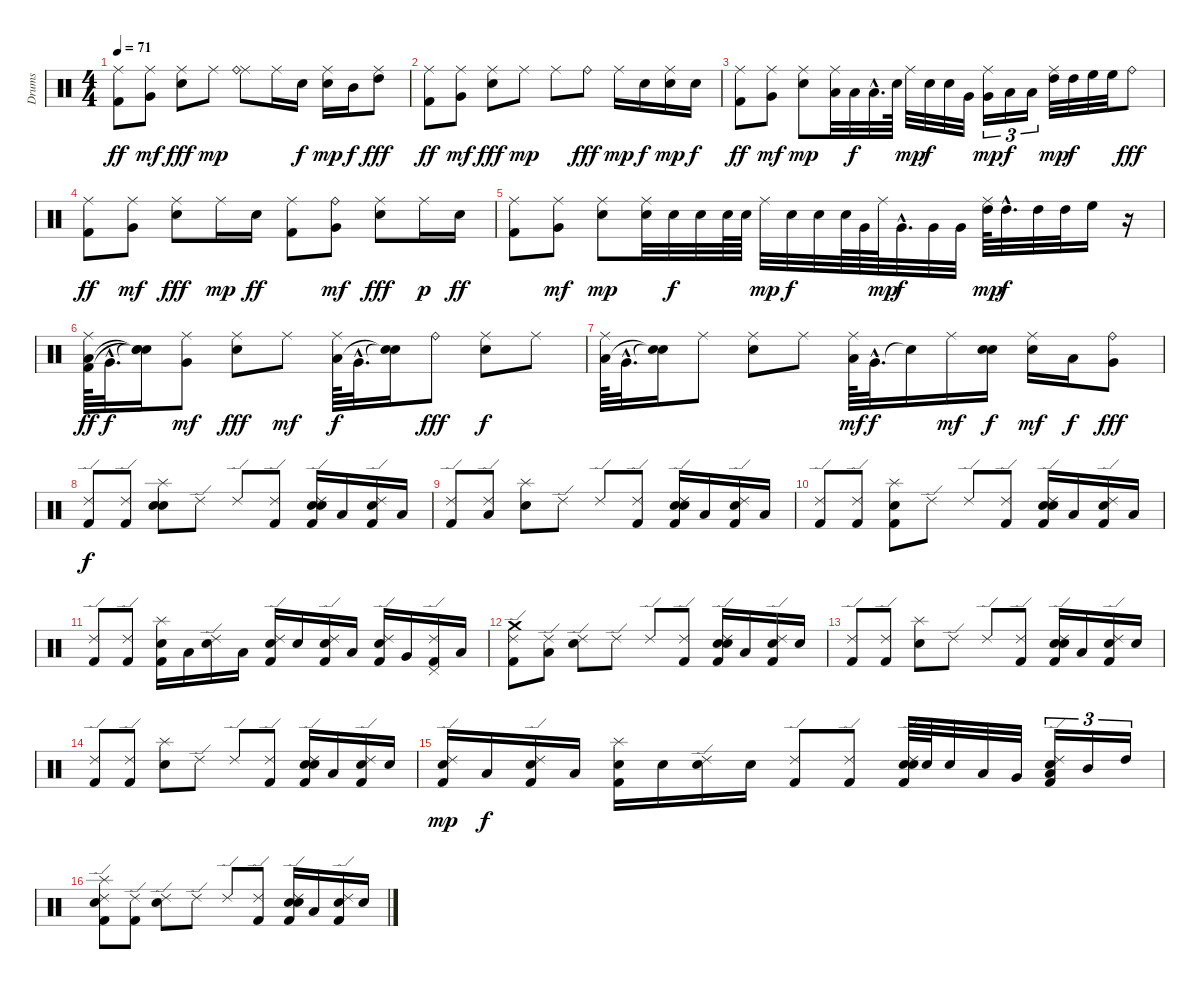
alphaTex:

\track ("Drums" "Drums") {instrument percussion}
\staff {score}
\articulation defaults
\ts (4 4)
\tempo 71
\clef neutral
\ks c
("Ride (middle)" "Kick (hit) 2").8{dy ff} ("Ride (middle)" "Very Low Tom (hit)").8{dy mf} ("Ride (middle)" "Electric Snare (hit)").8{dy fff} "Ride (middle)".8{dy mp} ("Ride (middle)" "Ride (bell)").8 "Ride (middle)".16 "Electric Snare (hit)".16{dy f} ("Ride (middle)" "Electric Snare (hit)").16{dy mp} "Mid Tom (hit)".16{dy f} ("Ride (middle)" "High Tom (hit)").8{dy fff} |
("Ride (middle)" "Kick (hit) 2").8{dy ff} ("Ride (middle)" "Very Low Tom (hit)").8{dy mf} ("Ride (middle)" "Electric Snare (hit)").8{dy fff} "Ride (middle)".8{dy mp} "Ride (middle)".8 "Ride (bell)".8{dy fff} "Ride (middle)".16{dy mp} "Snare (hit) 2".16{dy f} ("Ride (middle)" "Snare (hit) 2").16{dy mp} "Snare (hit) 2".16{dy f} |
("Ride (middle)" "Kick (hit) 2").8{dy ff} ("Ride (middle)" "Very Low Tom (hit)").8{dy mf} ("Ride (middle)" "Electric Snare (hit)").8{dy mp} ("Ride (middle)" "Low Floor Tom (hit)").32{volume 10} "Low Floor Tom (hit)".32{dy f} "Low Floor Tom (hit)"{hac}.32{d volume 14} "Electric Snare (hit)".64 "Ride (middle)".32{dy mp} "Electric Snare (hit)".32{dy f} "Electric Snare (hit)".32 "Very Low Tom (hit)".32{volume 10} ("Ride (middle)" "Very Low Tom (hit)").16{tu (3 2) dy mp volume 12} "Low Tom (hit)".16{tu (3 2) dy f volume 14} "Low Tom (hit)".16{tu (3 2) volume 15} ("Ride (middle)" "High Tom (hit)").32{dy mp volume 16} "High Tom (hit)".32{dy f} "High Floor Tom (hit)".32 "High Floor Tom (hit)".32 "Ride (bell)".8{dy fff} |
("Ride (middle)" "Kick (hit) 2").8{dy ff} ("Ride (middle)" "Very Low Tom (hit)").8{dy mf} ("Ride (middle)" "Electric Snare (hit)").8{dy fff} "Ride (middle)".16{dy mp} "Snare (hit) 2".16{dy ff} ("Ride (middle)" "Kick (hit) 2").8 ("Ride (bell)" "Very Low Tom (hit)").8{dy mf} ("Ride (middle)" "Electric Snare (hit)").8{dy fff} "Ride (middle)".16{dy p} "Snare (hit) 2".16{dy ff} |
("Ride (middle)" "Kick (hit) 2").8 ("Ride (middle)" "Very Low Tom (hit)").8{dy mf} ("Ride (middle)" "Electric Snare (hit)").8{dy mp} ("Ride (middle)" "Snare (hit) 2").32 "Snare (hit) 2".32{dy f} "Snare (hit) 2".32 "Snare (hit) 2".64 "Electric Snare (hit)".64 "Ride (middle)".32{dy mp} "Electric Snare (hit)".32{dy f} "Electric Snare (hit)".32 "Electric Snare (hit)".64 "Very Low Tom (hit)".64 "Ride (middle)".64{dy mp} "Very Low Tom (hit)"{hac}.32{d dy f} "Very Low Tom (hit)".32 "Very Low Tom (hit)".32 ("Ride (middle)" "High Tom (hit)").64{dy mp} "High Tom (hit)"{hac}.32{d dy f} "High Tom (hit)".32 "High Tom (hit)".32 "High Floor Tom (hit)".16 r.16 |
("Ride (middle)" "Low Floor Tom (hit)" "Kick (hit) 2").64{dy ff} "Very Low Tom (hit)"{hac}.32{d dy f} ("Snare (hit)"{t} "Snare (hit)"{t} "Snare (hit)"{t}).16 ("Ride (middle)" "Very Low Tom (hit)").8{dy mf} ("Ride (middle)" "Electric Snare (hit)").8{dy fff} "Ride (middle)".8{dy mf} ("Ride (middle)" "Low Floor Tom (hit)").64{dy f} "Very Low Tom (hit)"{hac}.32{d} ("Snare (hit)"{t} "Snare (hit)"{t}).16 "Ride (bell)".8{dy fff} ("Ride (middle)" "Electric Snare (hit)").8{dy f} "Ride (middle)".8 |
("Ride (middle)" "Low Floor Tom (hit)").64 "Very Low Tom (hit)"{hac}.32{d} ("Snare (hit)"{t} "Snare (hit)"{t}).16 "Ride (middle)".8 ("Ride (middle)" "Electric Snare (hit)").8 "Ride (middle)".8 ("Ride (middle)" "Low Floor Tom (hit)").64{dy mf} "Very Low Tom (hit)"{hac}.32{d dy f} "Snare (hit)"{t}.16 "Ride (middle)".16{dy mf} ("Snare (hit) 2" "Electric Snare (hit)").16{dy f} ("Ride (middle)" "Electric Snare (hit)").16{dy mf} "Low Floor Tom (hit)".16{dy f} ("Ride (bell)" "Very Low Tom (hit)").8{dy fff} |
("Ride (edge) 2" "Kick (hit) 2").8{dy f} ("Ride (edge) 2" "Kick (hit) 2").8 ("Splash (hit)" "Snare (hit) 2" "Electric Snare (hit)").8 "Ride (edge) 2".8 "Ride (edge) 2".8 ("Ride (edge) 2" "Kick (hit) 2").8 ("Ride (edge) 2" "Snare (hit) 2" "Electric Snare (hit)" "Kick (hit) 2").16 "Low Floor Tom (hit)".16 ("Ride (edge) 2" "Snare (hit) 2" "Kick (hit) 2").16 "Low Floor Tom (hit)".16 |
("Ride (edge) 2" "Kick (hit) 2").8 ("Ride (edge) 2" "Low Floor Tom (hit)").8 ("Splash (hit)" "Snare (hit) 2").8 "Ride (edge) 2".8 "Ride (edge) 2".8 ("Ride (edge) 2" "Kick (hit) 2").8 ("Ride (edge) 2" "Snare (hit) 2" "Electric Snare (hit)" "Kick (hit) 2").16 "Low Floor Tom (hit)".16 ("Ride (edge) 2" "Snare (hit) 2" "Kick (hit) 2").16 "Low Floor Tom (hit)".16 |
("Ride (edge) 2" "Kick (hit) 2").8 ("Ride (edge) 2" "Kick (hit) 2").8 ("Splash (hit)" "Snare (hit) 2" "Kick (hit) 2").8 "Ride (edge) 2".8 "Ride (edge) 2".8 ("Ride (edge) 2" "Kick (hit) 2").8 ("Ride (edge) 2" "Snare (hit) 2" "Electric Snare (hit)" "Kick (hit) 2").16 "Low Floor Tom (hit)".16 ("Ride (edge) 2" "Snare (hit) 2" "Kick (hit) 2").16 "Low Floor Tom (hit)".16 |
("Ride (edge) 2" "Kick (hit) 2").8 ("Ride (edge) 2" "Kick (hit) 2").8 ("Splash (hit)" "Snare (hit) 2" "Kick (hit) 2").16 "Low Floor Tom (hit)".16 ("Ride (edge) 2" "Snare (hit) 2").16 "Low Floor Tom (hit)".16 ("Ride (edge) 2" "Snare (hit) 2" "Kick (hit) 2").16 "Electric Snare (hit)".16 ("Ride (edge) 2" "Snare (hit) 2" "Kick (hit) 2").16 "Low Floor Tom (hit)".16 ("Ride (edge) 2" "Snare (hit) 2" "Kick (hit) 2").16 "Very Low Tom (hit)".16 ("Ride (edge) 2" "Pedal Hi-Hat (hit)" "Kick (hit) 2").16 "Low Tom (hit)".16 |
("Ride (edge) 2" "Crash medium (hit)" "Kick (hit) 2").8 ("Ride (edge) 2" "Low Floor Tom (hit)").8 ("Ride (edge) 2" "Electric Snare (hit)").8 "Ride (edge) 2".8 "Ride (edge) 2".8 ("Ride (edge) 2" "Kick (hit) 2").8 ("Ride (edge) 2" "Snare (hit) 2" "Electric Snare (hit)" "Kick (hit) 2").16 "Low Floor Tom (hit)".16 ("Ride (edge) 2" "Snare (hit) 2" "Kick (hit) 2").16 "Snare (hit) 2".16 |
("Ride (edge) 2" "Kick (hit) 2").8 ("Ride (edge) 2" "Kick (hit) 2").8 ("Splash (hit)" "Snare (hit) 2").8 "Ride (edge) 2".8 "Ride (edge) 2".8 ("Ride (edge) 2" "Kick (hit) 2").8 ("Ride (edge) 2" "Snare (hit) 2" "Electric Snare (hit)" "Kick (hit) 2").16 "Low Floor Tom (hit)".16 ("Ride (edge) 2" "Snare (hit) 2" "Kick (hit) 2").16 "Snare (hit) 2".16 |
("Ride (edge) 2" "Kick (hit) 2").8 ("Ride (edge) 2" "Kick (hit) 2").8 ("Splash (hit)" "Snare (hit) 2").8 "Ride (edge) 2".8 "Ride (edge) 2".8 ("Ride (edge) 2" "Kick (hit) 2").8 ("Ride (edge) 2" "Snare (hit) 2" "Electric Snare (hit)" "Kick (hit) 2").16 "Low Floor Tom (hit)".16 ("Ride (edge) 2" "Snare (hit) 2" "Kick (hit) 2").16 "Snare (hit) 2".16 |
("Ride (edge) 2" "Electric Snare (hit)" "Kick (hit) 2").16{dy mp} "Low Floor Tom (hit)".16{dy f} ("Ride (edge) 2" "Electric Snare (hit)" "Kick (hit) 2").16 "Low Floor Tom (hit)".16 ("Splash (hit)" "Electric Snare (hit)" "Kick (hit) 2").16 "Snare (hit) 2".16 ("Ride (edge) 2" "Electric Snare (hit)").16 "Snare (hit) 2".16 ("Ride (edge) 2" "Kick (hit) 2").8 ("Ride (edge) 2" "Kick (hit) 2").8 ("Ride (edge) 2" "Snare (hit) 2" "Electric Snare (hit)" "Kick (hit) 2").64 "Electric Snare (hit)".64 "Electric Snare (hit)".32 "Low Floor Tom (hit)".32 "Very Low Tom (hit)".32 ("Ride (edge) 2" "Snare (hit) 2" "Low Tom (hit)" "Kick (hit) 2").16{tu (3 2)} "Mid Tom (hit)".16{tu (3 2)} "High Tom (hit)".16{tu (3 2)} |
("Ride (edge) 2" "Splash (hit)" "Electric Snare (hit)" "Kick (hit) 2").8 ("Ride (edge) 2" "Kick (hit) 2").8 ("Ride (edge) 2" "Snare (hit) 2").8 "Ride (edge) 2".8 "Ride (edge) 2".8 ("Ride (edge) 2" "Kick (hit) 2").8 ("Ride (edge) 2" "Snare (hit) 2" "Electric Snare (hit)" "Kick (hit) 2").16 "Low Floor Tom (hit)".16 ("Ride (edge) 2" "Snare (hit) 2" "Kick (hit) 2").16 "Snare (hit) 2".16
